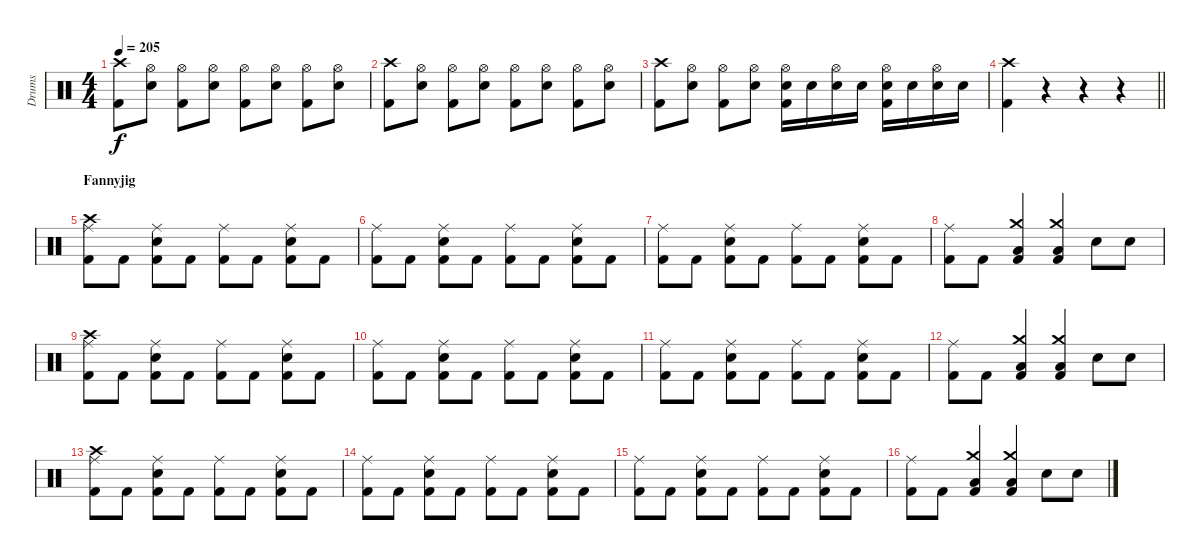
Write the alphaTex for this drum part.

\track ("Drums" "Drums") {instrument percussion}
\staff {score}
\articulation defaults
\ts (4 4)
\tempo 205
\clef neutral
\ks c
("Crash high (hit)" "Kick (hit) 2").8{dy f} ("Hi-Hat (open)" "Snare (hit) 2").8 ("Hi-Hat (open)" "Kick (hit) 2").8 ("Hi-Hat (open)" "Snare (hit) 2").8 ("Hi-Hat (open)" "Kick (hit) 2").8 ("Hi-Hat (open)" "Snare (hit) 2").8 ("Hi-Hat (open)" "Kick (hit) 2").8 ("Hi-Hat (open)" "Snare (hit) 2").8 |
("Crash high (hit)" "Kick (hit) 2").8 ("Hi-Hat (open)" "Snare (hit) 2").8 ("Hi-Hat (open)" "Kick (hit) 2").8 ("Hi-Hat (open)" "Snare (hit) 2").8 ("Hi-Hat (open)" "Kick (hit) 2").8 ("Hi-Hat (open)" "Snare (hit) 2").8 ("Hi-Hat (open)" "Kick (hit) 2").8 ("Hi-Hat (open)" "Snare (hit) 2").8 |
("Crash high (hit)" "Kick (hit) 2").8 ("Hi-Hat (open)" "Snare (hit) 2").8 ("Hi-Hat (open)" "Kick (hit) 2").8 ("Hi-Hat (open)" "Snare (hit) 2").8 ("Hi-Hat (open)" "Snare (hit) 2" "Kick (hit) 2").16 "Snare (hit) 2".16 ("Hi-Hat (open)" "Snare (hit) 2").16 "Snare (hit) 2".16 ("Hi-Hat (open)" "Snare (hit) 2" "Kick (hit) 2").16 "Snare (hit) 2".16 ("Hi-Hat (open)" "Snare (hit) 2").16 "Snare (hit) 2".16 |
\barLineRight lightlight
("Crash high (hit)" "Kick (hit) 2").4 r.4 r.4 r.4 |
\section ("" "Fannyjig")
("Crash high (hit)" "Ride (middle)" "Kick (hit) 2").8 "Kick (hit) 2".8 ("Ride (middle)" "Snare (hit) 2" "Kick (hit) 2").8 "Kick (hit) 2".8 ("Ride (middle)" "Kick (hit) 2").8 "Kick (hit) 2".8 ("Ride (middle)" "Snare (hit) 2" "Kick (hit) 2").8 "Kick (hit) 2".8 |
("Ride (middle)" "Kick (hit) 2").8 "Kick (hit) 2".8 ("Ride (middle)" "Snare (hit) 2" "Kick (hit) 2").8 "Kick (hit) 2".8 ("Ride (middle)" "Kick (hit) 2").8 "Kick (hit) 2".8 ("Ride (middle)" "Snare (hit) 2" "Kick (hit) 2").8 "Kick (hit) 2".8 |
("Ride (middle)" "Kick (hit) 2").8 "Kick (hit) 2".8 ("Ride (middle)" "Snare (hit) 2" "Kick (hit) 2").8 "Kick (hit) 2".8 ("Ride (middle)" "Kick (hit) 2").8 "Kick (hit) 2".8 ("Ride (middle)" "Snare (hit) 2" "Kick (hit) 2").8 "Kick (hit) 2".8 |
("Ride (middle)" "Kick (hit) 2").8 "Kick (hit) 2".8 ("Crash medium (hit)" "Low Floor Tom (hit)" "Kick (hit) 2").4 ("Crash medium (hit)" "Low Floor Tom (hit)" "Kick (hit) 2").4 "Snare (hit) 2".8 "Snare (hit) 2".8 |
("Crash high (hit)" "Ride (middle)" "Kick (hit) 2").8 "Kick (hit) 2".8 ("Ride (middle)" "Snare (hit) 2" "Kick (hit) 2").8 "Kick (hit) 2".8 ("Ride (middle)" "Kick (hit) 2").8 "Kick (hit) 2".8 ("Ride (middle)" "Snare (hit) 2" "Kick (hit) 2").8 "Kick (hit) 2".8 |
("Ride (middle)" "Kick (hit) 2").8 "Kick (hit) 2".8 ("Ride (middle)" "Snare (hit) 2" "Kick (hit) 2").8 "Kick (hit) 2".8 ("Ride (middle)" "Kick (hit) 2").8 "Kick (hit) 2".8 ("Ride (middle)" "Snare (hit) 2" "Kick (hit) 2").8 "Kick (hit) 2".8 |
("Ride (middle)" "Kick (hit) 2").8 "Kick (hit) 2".8 ("Ride (middle)" "Snare (hit) 2" "Kick (hit) 2").8 "Kick (hit) 2".8 ("Ride (middle)" "Kick (hit) 2").8 "Kick (hit) 2".8 ("Ride (middle)" "Snare (hit) 2" "Kick (hit) 2").8 "Kick (hit) 2".8 |
("Ride (middle)" "Kick (hit) 2").8 "Kick (hit) 2".8 ("Crash medium (hit)" "Low Floor Tom (hit)" "Kick (hit) 2").4 ("Crash medium (hit)" "Low Floor Tom (hit)" "Kick (hit) 2").4 "Snare (hit) 2".8 "Snare (hit) 2".8 |
("Crash high (hit)" "Ride (middle)" "Kick (hit) 2").8 "Kick (hit) 2".8 ("Ride (middle)" "Snare (hit) 2" "Kick (hit) 2").8 "Kick (hit) 2".8 ("Ride (middle)" "Kick (hit) 2").8 "Kick (hit) 2".8 ("Ride (middle)" "Snare (hit) 2" "Kick (hit) 2").8 "Kick (hit) 2".8 |
("Ride (middle)" "Kick (hit) 2").8 "Kick (hit) 2".8 ("Ride (middle)" "Snare (hit) 2" "Kick (hit) 2").8 "Kick (hit) 2".8 ("Ride (middle)" "Kick (hit) 2").8 "Kick (hit) 2".8 ("Ride (middle)" "Snare (hit) 2" "Kick (hit) 2").8 "Kick (hit) 2".8 |
("Ride (middle)" "Kick (hit) 2").8 "Kick (hit) 2".8 ("Ride (middle)" "Snare (hit) 2" "Kick (hit) 2").8 "Kick (hit) 2".8 ("Ride (middle)" "Kick (hit) 2").8 "Kick (hit) 2".8 ("Ride (middle)" "Snare (hit) 2" "Kick (hit) 2").8 "Kick (hit) 2".8 |
("Ride (middle)" "Kick (hit) 2").8 "Kick (hit) 2".8 ("Crash medium (hit)" "Low Floor Tom (hit)" "Kick (hit) 2").4 ("Crash medium (hit)" "Low Floor Tom (hit)" "Kick (hit) 2").4 "Snare (hit) 2".8 "Snare (hit) 2".8
